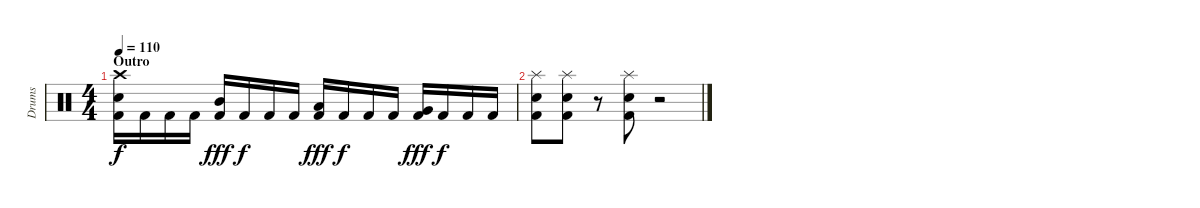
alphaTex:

\track ("Drums" "Drums") {instrument percussion}
\staff {score}
\articulation defaults
\ts (4 4)
\section ("" "Outro")
\tempo 110
\clef neutral
\ks c
("Crash high (hit)" "Electric Snare (hit)" "Kick (hit) 2").16{dy f} "Kick (hit) 2".16 "Kick (hit) 2".16 "Kick (hit) 2".16 ("Mid Tom (hit)" "Kick (hit) 2").16{dy fff} "Kick (hit) 2".16{dy f} "Kick (hit) 2".16 "Kick (hit) 2".16 ("Low Tom (hit)" "Kick (hit) 2").16{dy fff} "Kick (hit) 2".16{dy f} "Kick (hit) 2".16 "Kick (hit) 2".16 ("Very Low Tom (hit)" "Kick (hit) 2").16{dy fff} "Kick (hit) 2".16{dy f} "Kick (hit) 2".16 "Kick (hit) 2".16 |
("Splash (hit)" "Electric Snare (hit)" "Kick (hit) 2").8 ("Splash (hit)" "Electric Snare (hit)" "Kick (hit) 2").8 r.8 ("Splash (hit)" "Electric Snare (hit)" "Kick (hit) 2").8 r.2
